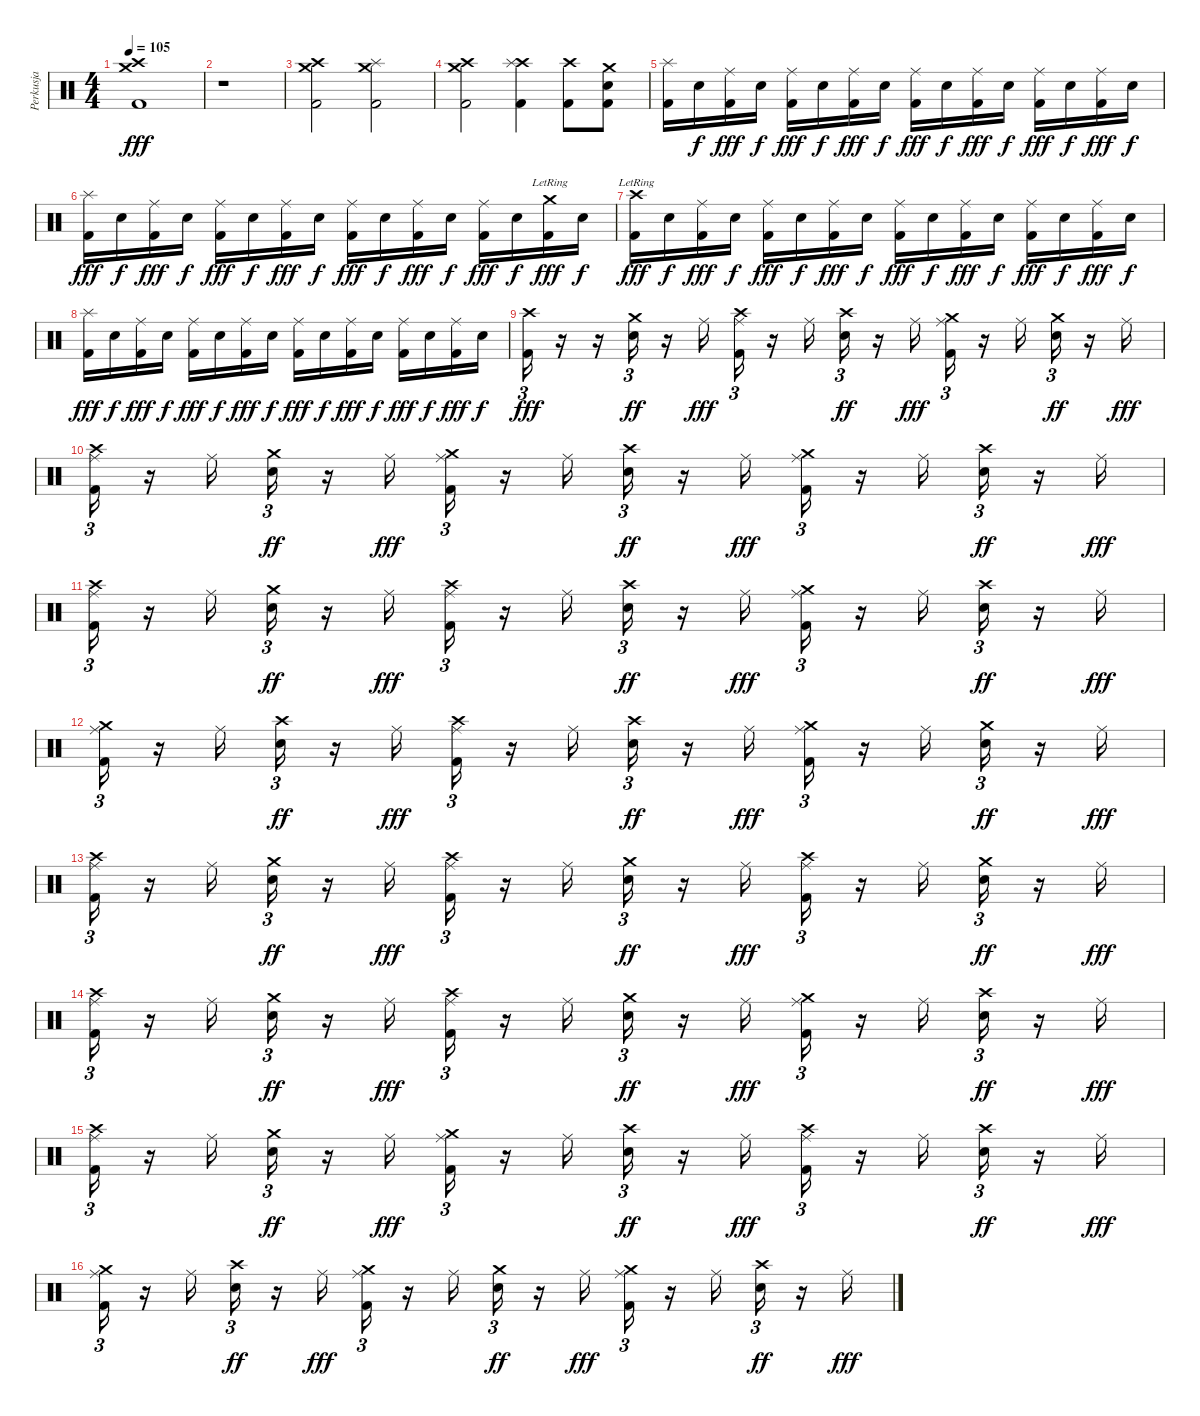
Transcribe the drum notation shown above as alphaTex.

\track ("Perkusja" "Perkusja") {instrument percussion}
\staff {score}
\articulation defaults
\ts (4 4)
\tempo 105
\clef neutral
\ks c
("Crash high (hit)" "Crash medium (hit)" "Kick (hit) 2").1{dy fff} |
r.1 |
("Crash high (hit)" "Crash medium (hit)" "Kick (hit) 2").2 ("Crash medium (hit)" "Splash (hit)" "Kick (hit) 2").2 |
("Crash high (hit)" "Crash medium (hit)" "Kick (hit) 2").2 ("Crash high (hit)" "Splash (hit)" "Kick (hit) 2").4 ("Crash high (hit)" "Kick (hit) 2").8 ("Crash medium (hit)" "Snare (hit) 2" "Kick (hit) 2").8 |
("Splash (hit)" "Kick (hit) 2").16 "Snare (hit) 2".16{dy f} ("Ride (middle)" "Kick (hit) 2").16{dy fff} "Snare (hit) 2".16{dy f} ("Ride (middle)" "Kick (hit) 2").16{dy fff} "Snare (hit) 2".16{dy f} ("Ride (middle)" "Kick (hit) 2").16{dy fff} "Snare (hit) 2".16{dy f} ("Ride (middle)" "Kick (hit) 2").16{dy fff} "Snare (hit) 2".16{dy f} ("Ride (middle)" "Kick (hit) 2").16{dy fff} "Snare (hit) 2".16{dy f} ("Ride (middle)" "Kick (hit) 2").16{dy fff} "Snare (hit) 2".16{dy f} ("Ride (middle)" "Kick (hit) 2").16{dy fff} "Snare (hit) 2".16{dy f} |
("Splash (hit)" "Kick (hit) 2").16{dy fff} "Snare (hit) 2".16{dy f} ("Ride (middle)" "Kick (hit) 2").16{dy fff} "Snare (hit) 2".16{dy f} ("Ride (middle)" "Kick (hit) 2").16{dy fff} "Snare (hit) 2".16{dy f} ("Ride (middle)" "Kick (hit) 2").16{dy fff} "Snare (hit) 2".16{dy f} ("Ride (middle)" "Kick (hit) 2").16{dy fff} "Snare (hit) 2".16{dy f} ("Ride (middle)" "Kick (hit) 2").16{dy fff} "Snare (hit) 2".16{dy f} ("Ride (middle)" "Kick (hit) 2").16{dy fff} "Snare (hit) 2".16{dy f} ("Crash medium (hit)"{lr} "Kick (hit) 2").16{dy fff} "Snare (hit) 2".16{dy f} |
("Crash high (hit)"{lr} "Kick (hit) 2").16{dy fff} "Snare (hit) 2".16{dy f} ("Ride (middle)" "Kick (hit) 2").16{dy fff} "Snare (hit) 2".16{dy f} ("Ride (middle)" "Kick (hit) 2").16{dy fff} "Snare (hit) 2".16{dy f} ("Ride (middle)" "Kick (hit) 2").16{dy fff} "Snare (hit) 2".16{dy f} ("Ride (middle)" "Kick (hit) 2").16{dy fff} "Snare (hit) 2".16{dy f} ("Ride (middle)" "Kick (hit) 2").16{dy fff} "Snare (hit) 2".16{dy f} ("Ride (middle)" "Kick (hit) 2").16{dy fff} "Snare (hit) 2".16{dy f} ("Ride (middle)" "Kick (hit) 2").16{dy fff} "Snare (hit) 2".16{dy f} |
("Splash (hit)" "Kick (hit) 2").16{dy fff} "Snare (hit) 2".16{dy f} ("Ride (middle)" "Kick (hit) 2").16{dy fff} "Snare (hit) 2".16{dy f} ("Ride (middle)" "Kick (hit) 2").16{dy fff} "Snare (hit) 2".16{dy f} ("Ride (middle)" "Kick (hit) 2").16{dy fff} "Snare (hit) 2".16{dy f} ("Ride (middle)" "Kick (hit) 2").16{dy fff} "Snare (hit) 2".16{dy f} ("Ride (middle)" "Kick (hit) 2").16{dy fff} "Snare (hit) 2".16{dy f} ("Ride (middle)" "Kick (hit) 2").16{dy fff} "Snare (hit) 2".16{dy f} ("Ride (middle)" "Kick (hit) 2").16{dy fff} "Snare (hit) 2".16{dy f} |
("Crash high (hit)" "Kick (hit) 2").16{tu (3 2) dy fff} r.16 r.16 ("Crash medium (hit)" "Snare (hit) 2").16{tu (3 2) dy ff} r.16 "Ride (middle)".16{dy fff} ("Ride (middle)" "Crash high (hit)" "Kick (hit) 2").16{tu (3 2)} r.16 "Ride (middle)".16 ("Crash high (hit)" "Snare (hit) 2").16{tu (3 2) dy ff} r.16 "Ride (middle)".16{dy fff} ("Ride (middle)" "Crash medium (hit)" "Kick (hit) 2").16{tu (3 2)} r.16 "Ride (middle)".16 ("Crash medium (hit)" "Snare (hit) 2").16{tu (3 2) dy ff} r.16 "Ride (middle)".16{dy fff} |
("Ride (middle)" "Crash high (hit)" "Kick (hit) 2").16{tu (3 2)} r.16 "Ride (middle)".16 ("Crash medium (hit)" "Snare (hit) 2").16{tu (3 2) dy ff} r.16 "Ride (middle)".16{dy fff} ("Ride (middle)" "Crash medium (hit)" "Kick (hit) 2").16{tu (3 2)} r.16 "Ride (middle)".16 ("Crash high (hit)" "Snare (hit) 2").16{tu (3 2) dy ff} r.16 "Ride (middle)".16{dy fff} ("Ride (middle)" "Crash medium (hit)" "Kick (hit) 2").16{tu (3 2)} r.16 "Ride (middle)".16 ("Crash high (hit)" "Snare (hit) 2").16{tu (3 2) dy ff} r.16 "Ride (middle)".16{dy fff} |
("Ride (middle)" "Crash high (hit)" "Kick (hit) 2").16{tu (3 2)} r.16 "Ride (middle)".16 ("Crash medium (hit)" "Snare (hit) 2").16{tu (3 2) dy ff} r.16 "Ride (middle)".16{dy fff} ("Ride (middle)" "Crash high (hit)" "Kick (hit) 2").16{tu (3 2)} r.16 "Ride (middle)".16 ("Crash high (hit)" "Snare (hit) 2").16{tu (3 2) dy ff} r.16 "Ride (middle)".16{dy fff} ("Ride (middle)" "Crash medium (hit)" "Kick (hit) 2").16{tu (3 2)} r.16 "Ride (middle)".16 ("Crash high (hit)" "Snare (hit) 2").16{tu (3 2) dy ff} r.16 "Ride (middle)".16{dy fff} |
("Ride (middle)" "Crash medium (hit)" "Kick (hit) 2").16{tu (3 2)} r.16 "Ride (middle)".16 ("Crash high (hit)" "Snare (hit) 2").16{tu (3 2) dy ff} r.16 "Ride (middle)".16{dy fff} ("Ride (middle)" "Crash high (hit)" "Kick (hit) 2").16{tu (3 2)} r.16 "Ride (middle)".16 ("Crash high (hit)" "Snare (hit) 2").16{tu (3 2) dy ff} r.16 "Ride (middle)".16{dy fff} ("Ride (middle)" "Crash medium (hit)" "Kick (hit) 2").16{tu (3 2)} r.16 "Ride (middle)".16 ("Crash medium (hit)" "Snare (hit) 2").16{tu (3 2) dy ff} r.16 "Ride (middle)".16{dy fff} |
("Ride (middle)" "Crash high (hit)" "Kick (hit) 2").16{tu (3 2)} r.16 "Ride (middle)".16 ("Crash medium (hit)" "Snare (hit) 2").16{tu (3 2) dy ff} r.16 "Ride (middle)".16{dy fff} ("Ride (middle)" "Crash high (hit)" "Kick (hit) 2").16{tu (3 2)} r.16 "Ride (middle)".16 ("Crash medium (hit)" "Snare (hit) 2").16{tu (3 2) dy ff} r.16 "Ride (middle)".16{dy fff} ("Ride (middle)" "Crash high (hit)" "Kick (hit) 2").16{tu (3 2)} r.16 "Ride (middle)".16 ("Crash medium (hit)" "Snare (hit) 2").16{tu (3 2) dy ff} r.16 "Ride (middle)".16{dy fff} |
("Ride (middle)" "Crash high (hit)" "Kick (hit) 2").16{tu (3 2)} r.16 "Ride (middle)".16 ("Crash medium (hit)" "Snare (hit) 2").16{tu (3 2) dy ff} r.16 "Ride (middle)".16{dy fff} ("Ride (middle)" "Crash high (hit)" "Kick (hit) 2").16{tu (3 2)} r.16 "Ride (middle)".16 ("Crash medium (hit)" "Snare (hit) 2").16{tu (3 2) dy ff} r.16 "Ride (middle)".16{dy fff} ("Ride (middle)" "Crash medium (hit)" "Kick (hit) 2").16{tu (3 2)} r.16 "Ride (middle)".16 ("Crash high (hit)" "Snare (hit) 2").16{tu (3 2) dy ff} r.16 "Ride (middle)".16{dy fff} |
("Ride (middle)" "Crash high (hit)" "Kick (hit) 2").16{tu (3 2)} r.16 "Ride (middle)".16 ("Crash medium (hit)" "Snare (hit) 2").16{tu (3 2) dy ff} r.16 "Ride (middle)".16{dy fff} ("Ride (middle)" "Crash medium (hit)" "Kick (hit) 2").16{tu (3 2)} r.16 "Ride (middle)".16 ("Crash high (hit)" "Snare (hit) 2").16{tu (3 2) dy ff} r.16 "Ride (middle)".16{dy fff} ("Ride (middle)" "Crash high (hit)" "Kick (hit) 2").16{tu (3 2)} r.16 "Ride (middle)".16 ("Crash high (hit)" "Snare (hit) 2").16{tu (3 2) dy ff} r.16 "Ride (middle)".16{dy fff} |
("Ride (middle)" "Crash medium (hit)" "Kick (hit) 2").16{tu (3 2)} r.16 "Ride (middle)".16 ("Crash high (hit)" "Snare (hit) 2").16{tu (3 2) dy ff} r.16 "Ride (middle)".16{dy fff} ("Ride (middle)" "Crash medium (hit)" "Kick (hit) 2").16{tu (3 2)} r.16 "Ride (middle)".16 ("Crash medium (hit)" "Snare (hit) 2").16{tu (3 2) dy ff} r.16 "Ride (middle)".16{dy fff} ("Ride (middle)" "Crash medium (hit)" "Kick (hit) 2").16{tu (3 2)} r.16 "Ride (middle)".16 ("Crash high (hit)" "Snare (hit) 2").16{tu (3 2) dy ff} r.16 "Ride (middle)".16{dy fff}
